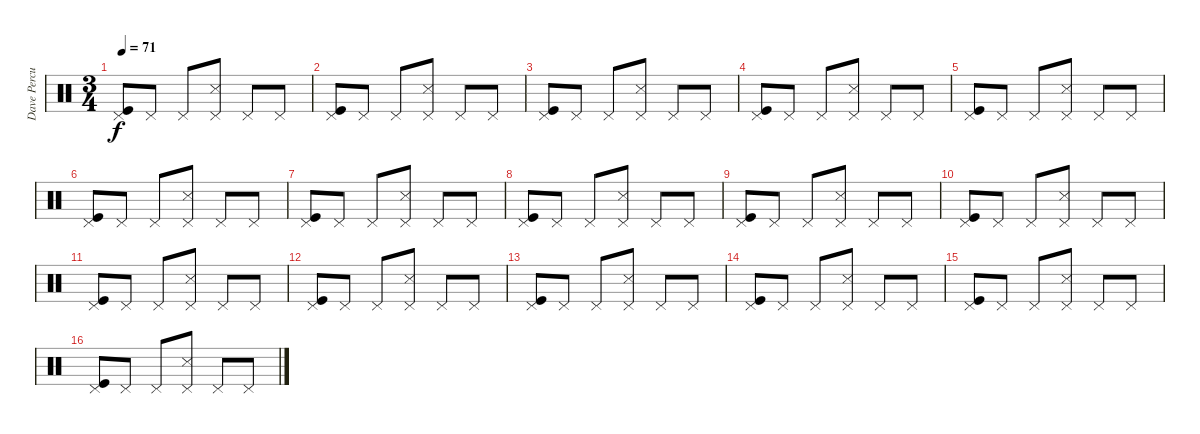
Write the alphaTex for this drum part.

\track ("Dave Percussions" "Dave Percu") {instrument percussion}
\staff {score}
\articulation defaults
\ts (3 4)
\tempo 71
\clef neutral
\ks c
("Pedal Hi-Hat (hit)" "Kick (hit)").8{dy f} "Pedal Hi-Hat (hit)".8 "Pedal Hi-Hat (hit)".8 ("Pedal Hi-Hat (hit)" "Snare (side stick) 3").8 "Pedal Hi-Hat (hit)".8 "Pedal Hi-Hat (hit)".8 |
("Pedal Hi-Hat (hit)" "Kick (hit)").8 "Pedal Hi-Hat (hit)".8 "Pedal Hi-Hat (hit)".8 ("Pedal Hi-Hat (hit)" "Snare (side stick) 3").8 "Pedal Hi-Hat (hit)".8 "Pedal Hi-Hat (hit)".8 |
("Pedal Hi-Hat (hit)" "Kick (hit)").8 "Pedal Hi-Hat (hit)".8 "Pedal Hi-Hat (hit)".8 ("Pedal Hi-Hat (hit)" "Snare (side stick) 3").8 "Pedal Hi-Hat (hit)".8 "Pedal Hi-Hat (hit)".8 |
("Pedal Hi-Hat (hit)" "Kick (hit)").8 "Pedal Hi-Hat (hit)".8 "Pedal Hi-Hat (hit)".8 ("Pedal Hi-Hat (hit)" "Snare (side stick) 3").8 "Pedal Hi-Hat (hit)".8 "Pedal Hi-Hat (hit)".8 |
("Pedal Hi-Hat (hit)" "Kick (hit)").8 "Pedal Hi-Hat (hit)".8 "Pedal Hi-Hat (hit)".8 ("Pedal Hi-Hat (hit)" "Snare (side stick) 3").8 "Pedal Hi-Hat (hit)".8 "Pedal Hi-Hat (hit)".8 |
("Pedal Hi-Hat (hit)" "Kick (hit)").8 "Pedal Hi-Hat (hit)".8 "Pedal Hi-Hat (hit)".8 ("Pedal Hi-Hat (hit)" "Snare (side stick) 3").8 "Pedal Hi-Hat (hit)".8 "Pedal Hi-Hat (hit)".8 |
("Pedal Hi-Hat (hit)" "Kick (hit)").8 "Pedal Hi-Hat (hit)".8 "Pedal Hi-Hat (hit)".8 ("Pedal Hi-Hat (hit)" "Snare (side stick) 3").8 "Pedal Hi-Hat (hit)".8 "Pedal Hi-Hat (hit)".8 |
("Pedal Hi-Hat (hit)" "Kick (hit)").8 "Pedal Hi-Hat (hit)".8 "Pedal Hi-Hat (hit)".8 ("Pedal Hi-Hat (hit)" "Snare (side stick) 3").8 "Pedal Hi-Hat (hit)".8 "Pedal Hi-Hat (hit)".8 |
("Pedal Hi-Hat (hit)" "Kick (hit)").8 "Pedal Hi-Hat (hit)".8 "Pedal Hi-Hat (hit)".8 ("Pedal Hi-Hat (hit)" "Snare (side stick) 3").8 "Pedal Hi-Hat (hit)".8 "Pedal Hi-Hat (hit)".8 |
("Pedal Hi-Hat (hit)" "Kick (hit)").8 "Pedal Hi-Hat (hit)".8 "Pedal Hi-Hat (hit)".8 ("Pedal Hi-Hat (hit)" "Snare (side stick) 3").8 "Pedal Hi-Hat (hit)".8 "Pedal Hi-Hat (hit)".8 |
("Pedal Hi-Hat (hit)" "Kick (hit)").8 "Pedal Hi-Hat (hit)".8 "Pedal Hi-Hat (hit)".8 ("Pedal Hi-Hat (hit)" "Snare (side stick) 3").8 "Pedal Hi-Hat (hit)".8 "Pedal Hi-Hat (hit)".8 |
("Pedal Hi-Hat (hit)" "Kick (hit)").8 "Pedal Hi-Hat (hit)".8 "Pedal Hi-Hat (hit)".8 ("Pedal Hi-Hat (hit)" "Snare (side stick) 3").8 "Pedal Hi-Hat (hit)".8 "Pedal Hi-Hat (hit)".8 |
("Pedal Hi-Hat (hit)" "Kick (hit)").8 "Pedal Hi-Hat (hit)".8 "Pedal Hi-Hat (hit)".8 ("Pedal Hi-Hat (hit)" "Snare (side stick) 3").8 "Pedal Hi-Hat (hit)".8 "Pedal Hi-Hat (hit)".8 |
("Pedal Hi-Hat (hit)" "Kick (hit)").8 "Pedal Hi-Hat (hit)".8 "Pedal Hi-Hat (hit)".8 ("Pedal Hi-Hat (hit)" "Snare (side stick) 3").8 "Pedal Hi-Hat (hit)".8 "Pedal Hi-Hat (hit)".8 |
("Pedal Hi-Hat (hit)" "Kick (hit)").8 "Pedal Hi-Hat (hit)".8 "Pedal Hi-Hat (hit)".8 ("Pedal Hi-Hat (hit)" "Snare (side stick) 3").8 "Pedal Hi-Hat (hit)".8 "Pedal Hi-Hat (hit)".8 |
("Pedal Hi-Hat (hit)" "Kick (hit)").8 "Pedal Hi-Hat (hit)".8 "Pedal Hi-Hat (hit)".8 ("Pedal Hi-Hat (hit)" "Snare (side stick) 3").8 "Pedal Hi-Hat (hit)".8 "Pedal Hi-Hat (hit)".8
